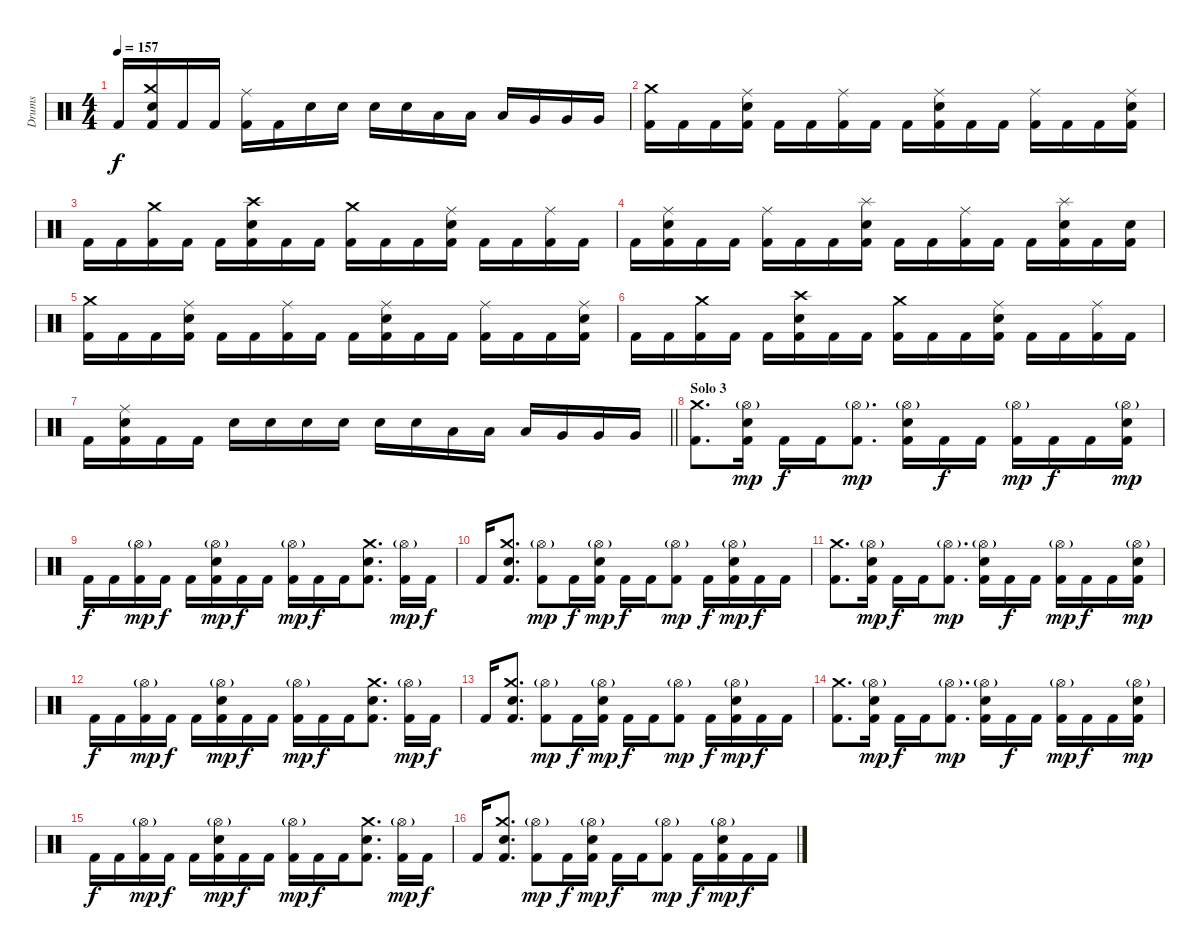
\track ("Drums" "Drums") {instrument percussion}
\staff {score}
\articulation defaults
\ts (4 4)
\tempo 157
\clef neutral
\ks c "Kick (hit) 2".16{dy f}
("Crash medium (hit)" "Snare (hit) 2" "Kick (hit) 2").16 "Kick (hit) 2".16 "Kick (hit) 2".16 ("Ride (middle)" "Kick (hit) 2").16 "Kick (hit) 2".16 "Snare (hit) 2".16 "Snare (hit) 2".16 "Snare (hit) 2".16 "Snare (hit) 2".16 "Low Tom (hit)".16 "Low Tom (hit)".16 "Low Tom (hit)".16 "Very Low Tom (hit)".16 "Very Low Tom (hit)".16 "Very Low Tom (hit)".16 |
("Crash medium (hit)" "Kick (hit) 2").16 "Kick (hit) 2".16 "Kick (hit) 2".16 ("Ride (middle)" "Snare (hit) 2" "Kick (hit) 2").16 "Kick (hit) 2".16 "Kick (hit) 2".16 ("Ride (middle)" "Kick (hit) 2").16 "Kick (hit) 2".16 "Kick (hit) 2".16 ("Ride (middle)" "Snare (hit) 2" "Kick (hit) 2").16 "Kick (hit) 2".16 "Kick (hit) 2".16 ("Ride (middle)" "Kick (hit) 2").16 "Kick (hit) 2".16 "Kick (hit) 2".16 ("Ride (middle)" "Snare (hit) 2" "Kick (hit) 2").16 |
"Kick (hit) 2".16 "Kick (hit) 2".16 ("Crash medium (hit)" "Kick (hit) 2").16 "Kick (hit) 2".16 "Kick (hit) 2".16 ("Crash high (hit)" "Snare (hit) 2" "Kick (hit) 2").16 "Kick (hit) 2".16 "Kick (hit) 2".16 ("Crash medium (hit)" "Kick (hit) 2").16 "Kick (hit) 2".16 "Kick (hit) 2".16 ("Ride (middle)" "Snare (hit) 2" "Kick (hit) 2").16 "Kick (hit) 2".16 "Kick (hit) 2".16 ("Ride (middle)" "Kick (hit) 2").16 "Kick (hit) 2".16 |
"Kick (hit) 2".16 ("Ride (middle)" "Snare (hit) 2" "Kick (hit) 2").16 "Kick (hit) 2".16 "Kick (hit) 2".16 ("Ride (middle)" "Kick (hit) 2").16 "Kick (hit) 2".16 "Kick (hit) 2".16 ("Splash (hit)" "Snare (hit) 2" "Kick (hit) 2").16 "Kick (hit) 2".16 "Kick (hit) 2".16 ("Ride (middle)" "Kick (hit) 2").16 "Kick (hit) 2".16 "Kick (hit) 2".16 ("Splash (hit)" "Snare (hit) 2" "Kick (hit) 2").16 "Kick (hit) 2".16 ("Snare (hit) 2" "Kick (hit) 2").16 |
("Crash medium (hit)" "Kick (hit) 2").16 "Kick (hit) 2".16 "Kick (hit) 2".16 ("Ride (middle)" "Snare (hit) 2" "Kick (hit) 2").16 "Kick (hit) 2".16 "Kick (hit) 2".16 ("Ride (middle)" "Kick (hit) 2").16 "Kick (hit) 2".16 "Kick (hit) 2".16 ("Ride (middle)" "Snare (hit) 2" "Kick (hit) 2").16 "Kick (hit) 2".16 "Kick (hit) 2".16 ("Ride (middle)" "Kick (hit) 2").16 "Kick (hit) 2".16 "Kick (hit) 2".16 ("Ride (middle)" "Snare (hit) 2" "Kick (hit) 2").16 |
"Kick (hit) 2".16 "Kick (hit) 2".16 ("Crash medium (hit)" "Kick (hit) 2").16 "Kick (hit) 2".16 "Kick (hit) 2".16 ("Crash high (hit)" "Snare (hit) 2" "Kick (hit) 2").16 "Kick (hit) 2".16 "Kick (hit) 2".16 ("Crash medium (hit)" "Kick (hit) 2").16 "Kick (hit) 2".16 "Kick (hit) 2".16 ("Ride (middle)" "Snare (hit) 2" "Kick (hit) 2").16 "Kick (hit) 2".16 "Kick (hit) 2".16 ("Ride (middle)" "Kick (hit) 2").16 "Kick (hit) 2".16 |
\barLineRight lightlight "Kick (hit) 2".16
("Ride (middle)" "Snare (hit) 2" "Kick (hit) 2").16 "Kick (hit) 2".16 "Kick (hit) 2".16 "Snare (hit) 2".16 "Snare (hit) 2".16 "Snare (hit) 2".16 "Snare (hit) 2".16 "Snare (hit) 2".16 "Snare (hit) 2".16 "Low Tom (hit)".16 "Low Tom (hit)".16 "Low Tom (hit)".16 "Very Low Tom (hit)".16 "Very Low Tom (hit)".16 "Very Low Tom (hit)".16 |
\section ("" "Solo 3")
("Crash medium (hit)" "Kick (hit) 2").8{d} ("Snare (hit) 2" "Hi-Hat (open)"{g} "Kick (hit) 2").16{dy mp} "Kick (hit) 2".16{dy f} "Kick (hit) 2".16 ("Hi-Hat (open)"{g} "Kick (hit) 2").8{d dy mp} ("Snare (hit) 2" "Hi-Hat (open)"{g} "Kick (hit) 2").16 "Kick (hit) 2".16{dy f} "Kick (hit) 2".16 ("Hi-Hat (open)"{g} "Kick (hit) 2").16{dy mp} "Kick (hit) 2".16{dy f} "Kick (hit) 2".16 ("Snare (hit) 2" "Hi-Hat (open)"{g} "Kick (hit) 2").16{dy mp} |
"Kick (hit) 2".16{dy f} "Kick (hit) 2".16 ("Hi-Hat (open)"{g} "Kick (hit) 2").16{dy mp} "Kick (hit) 2".16{dy f} "Kick (hit) 2".16 ("Snare (hit) 2" "Hi-Hat (open)"{g} "Kick (hit) 2").16{dy mp} "Kick (hit) 2".16{dy f} "Kick (hit) 2".16 ("Hi-Hat (open)"{g} "Kick (hit) 2").16{dy mp} "Kick (hit) 2".16{dy f} "Kick (hit) 2".16 ("Crash medium (hit)" "Snare (hit) 2" "Kick (hit) 2").8{d} ("Hi-Hat (open)"{g} "Kick (hit) 2").16{dy mp} "Kick (hit) 2".16{dy f} |
"Kick (hit) 2".16 ("Crash medium (hit)" "Snare (hit) 2" "Kick (hit) 2").8{d} ("Hi-Hat (open)"{g} "Kick (hit) 2").8{dy mp} "Kick (hit) 2".16{dy f} ("Snare (hit) 2" "Hi-Hat (open)"{g} "Kick (hit) 2").16{dy mp} "Kick (hit) 2".16{dy f} "Kick (hit) 2".16 ("Hi-Hat (open)"{g} "Kick (hit) 2").8{dy mp} "Kick (hit) 2".16{dy f} ("Snare (hit) 2" "Hi-Hat (open)"{g} "Kick (hit) 2").16{dy mp} "Kick (hit) 2".16{dy f} "Kick (hit) 2".16 |
("Crash medium (hit)" "Kick (hit) 2").8{d} ("Snare (hit) 2" "Hi-Hat (open)"{g} "Kick (hit) 2").16{dy mp} "Kick (hit) 2".16{dy f} "Kick (hit) 2".16 ("Hi-Hat (open)"{g} "Kick (hit) 2").8{d dy mp} ("Snare (hit) 2" "Hi-Hat (open)"{g} "Kick (hit) 2").16 "Kick (hit) 2".16{dy f} "Kick (hit) 2".16 ("Hi-Hat (open)"{g} "Kick (hit) 2").16{dy mp} "Kick (hit) 2".16{dy f} "Kick (hit) 2".16 ("Snare (hit) 2" "Hi-Hat (open)"{g} "Kick (hit) 2").16{dy mp} |
"Kick (hit) 2".16{dy f} "Kick (hit) 2".16 ("Hi-Hat (open)"{g} "Kick (hit) 2").16{dy mp} "Kick (hit) 2".16{dy f} "Kick (hit) 2".16 ("Snare (hit) 2" "Hi-Hat (open)"{g} "Kick (hit) 2").16{dy mp} "Kick (hit) 2".16{dy f} "Kick (hit) 2".16 ("Hi-Hat (open)"{g} "Kick (hit) 2").16{dy mp} "Kick (hit) 2".16{dy f} "Kick (hit) 2".16 ("Crash medium (hit)" "Snare (hit) 2" "Kick (hit) 2").8{d} ("Hi-Hat (open)"{g} "Kick (hit) 2").16{dy mp} "Kick (hit) 2".16{dy f} |
"Kick (hit) 2".16 ("Crash medium (hit)" "Snare (hit) 2" "Kick (hit) 2").8{d} ("Hi-Hat (open)"{g} "Kick (hit) 2").8{dy mp} "Kick (hit) 2".16{dy f} ("Snare (hit) 2" "Hi-Hat (open)"{g} "Kick (hit) 2").16{dy mp} "Kick (hit) 2".16{dy f} "Kick (hit) 2".16 ("Hi-Hat (open)"{g} "Kick (hit) 2").8{dy mp} "Kick (hit) 2".16{dy f} ("Snare (hit) 2" "Hi-Hat (open)"{g} "Kick (hit) 2").16{dy mp} "Kick (hit) 2".16{dy f} "Kick (hit) 2".16 |
("Crash medium (hit)" "Kick (hit) 2").8{d} ("Snare (hit) 2" "Hi-Hat (open)"{g} "Kick (hit) 2").16{dy mp} "Kick (hit) 2".16{dy f} "Kick (hit) 2".16 ("Hi-Hat (open)"{g} "Kick (hit) 2").8{d dy mp} ("Snare (hit) 2" "Hi-Hat (open)"{g} "Kick (hit) 2").16 "Kick (hit) 2".16{dy f} "Kick (hit) 2".16 ("Hi-Hat (open)"{g} "Kick (hit) 2").16{dy mp} "Kick (hit) 2".16{dy f} "Kick (hit) 2".16 ("Snare (hit) 2" "Hi-Hat (open)"{g} "Kick (hit) 2").16{dy mp} |
"Kick (hit) 2".16{dy f} "Kick (hit) 2".16 ("Hi-Hat (open)"{g} "Kick (hit) 2").16{dy mp} "Kick (hit) 2".16{dy f} "Kick (hit) 2".16 ("Snare (hit) 2" "Hi-Hat (open)"{g} "Kick (hit) 2").16{dy mp} "Kick (hit) 2".16{dy f} "Kick (hit) 2".16 ("Hi-Hat (open)"{g} "Kick (hit) 2").16{dy mp} "Kick (hit) 2".16{dy f} "Kick (hit) 2".16 ("Crash medium (hit)" "Snare (hit) 2" "Kick (hit) 2").8{d} ("Hi-Hat (open)"{g} "Kick (hit) 2").16{dy mp} "Kick (hit) 2".16{dy f} |
"Kick (hit) 2".16 ("Crash medium (hit)" "Snare (hit) 2" "Kick (hit) 2").8{d} ("Hi-Hat (open)"{g} "Kick (hit) 2").8{dy mp} "Kick (hit) 2".16{dy f} ("Snare (hit) 2" "Hi-Hat (open)"{g} "Kick (hit) 2").16{dy mp} "Kick (hit) 2".16{dy f} "Kick (hit) 2".16 ("Hi-Hat (open)"{g} "Kick (hit) 2").8{dy mp} "Kick (hit) 2".16{dy f} ("Snare (hit) 2" "Hi-Hat (open)"{g} "Kick (hit) 2").16{dy mp} "Kick (hit) 2".16{dy f} "Kick (hit) 2".16
